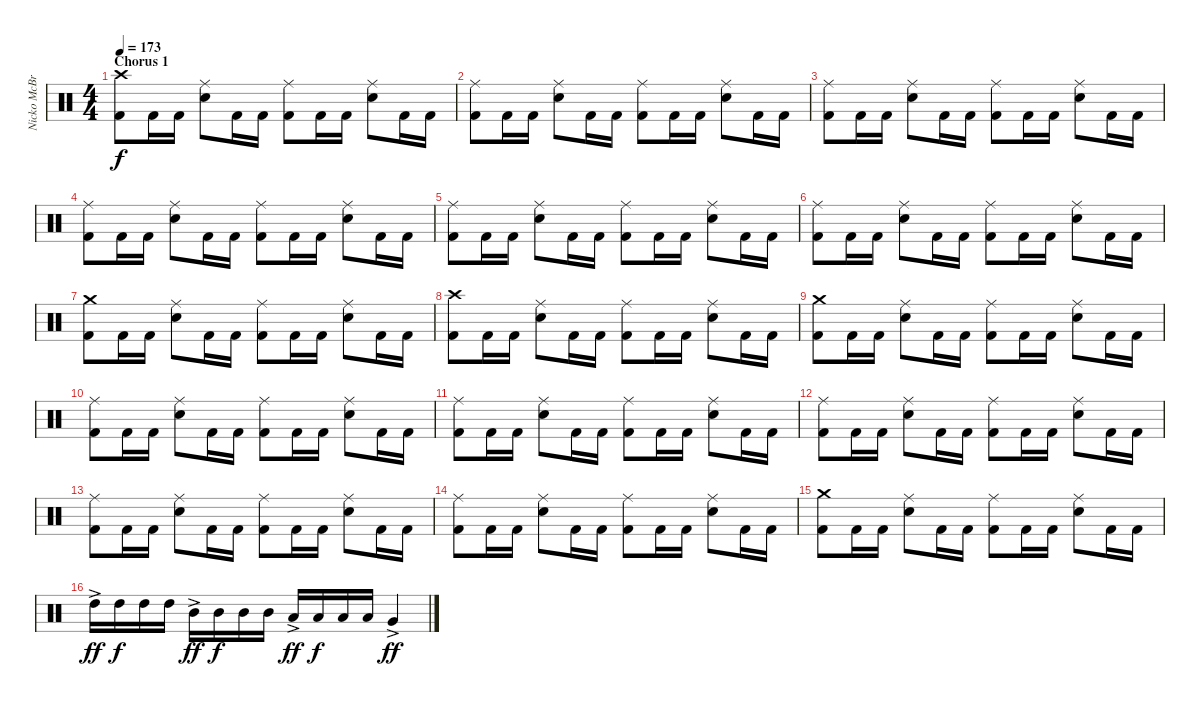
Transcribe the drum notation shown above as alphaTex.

\track ("Nicko McBrain" "Nicko McBr") {instrument percussion}
\staff {score}
\articulation defaults
\ts (4 4)
\section ("" "Chorus 1")
\tempo 173
\clef neutral
\ks c
("Crash high (hit)" "Kick (hit) 2").8{dy f} "Kick (hit) 2".16 "Kick (hit) 2".16 ("Ride (middle)" "Electric Snare (hit)").8 "Kick (hit) 2".16 "Kick (hit) 2".16 ("Ride (middle)" "Kick (hit) 2").8 "Kick (hit) 2".16 "Kick (hit) 2".16 ("Ride (middle)" "Electric Snare (hit)").8 "Kick (hit) 2".16 "Kick (hit) 2".16 |
("Ride (middle)" "Kick (hit) 2").8 "Kick (hit) 2".16 "Kick (hit) 2".16 ("Ride (middle)" "Electric Snare (hit)").8 "Kick (hit) 2".16 "Kick (hit) 2".16 ("Ride (middle)" "Kick (hit) 2").8 "Kick (hit) 2".16 "Kick (hit) 2".16 ("Ride (middle)" "Electric Snare (hit)").8 "Kick (hit) 2".16 "Kick (hit) 2".16 |
("Ride (middle)" "Kick (hit) 2").8 "Kick (hit) 2".16 "Kick (hit) 2".16 ("Ride (middle)" "Electric Snare (hit)").8 "Kick (hit) 2".16 "Kick (hit) 2".16 ("Ride (middle)" "Kick (hit) 2").8 "Kick (hit) 2".16 "Kick (hit) 2".16 ("Ride (middle)" "Electric Snare (hit)").8 "Kick (hit) 2".16 "Kick (hit) 2".16 |
("Ride (middle)" "Kick (hit) 2").8 "Kick (hit) 2".16 "Kick (hit) 2".16 ("Ride (middle)" "Electric Snare (hit)").8 "Kick (hit) 2".16 "Kick (hit) 2".16 ("Ride (middle)" "Kick (hit) 2").8 "Kick (hit) 2".16 "Kick (hit) 2".16 ("Ride (middle)" "Electric Snare (hit)").8 "Kick (hit) 2".16 "Kick (hit) 2".16 |
("Ride (middle)" "Kick (hit) 2").8 "Kick (hit) 2".16 "Kick (hit) 2".16 ("Ride (middle)" "Electric Snare (hit)").8 "Kick (hit) 2".16 "Kick (hit) 2".16 ("Ride (middle)" "Kick (hit) 2").8 "Kick (hit) 2".16 "Kick (hit) 2".16 ("Ride (middle)" "Electric Snare (hit)").8 "Kick (hit) 2".16 "Kick (hit) 2".16 |
("Ride (middle)" "Kick (hit) 2").8 "Kick (hit) 2".16 "Kick (hit) 2".16 ("Ride (middle)" "Electric Snare (hit)").8 "Kick (hit) 2".16 "Kick (hit) 2".16 ("Ride (middle)" "Kick (hit) 2").8 "Kick (hit) 2".16 "Kick (hit) 2".16 ("Ride (middle)" "Electric Snare (hit)").8 "Kick (hit) 2".16 "Kick (hit) 2".16 |
("Crash medium (hit)" "Kick (hit) 2").8 "Kick (hit) 2".16 "Kick (hit) 2".16 ("Ride (middle)" "Electric Snare (hit)").8 "Kick (hit) 2".16 "Kick (hit) 2".16 ("Ride (middle)" "Kick (hit) 2").8 "Kick (hit) 2".16 "Kick (hit) 2".16 ("Ride (middle)" "Electric Snare (hit)").8 "Kick (hit) 2".16 "Kick (hit) 2".16 |
("Crash high (hit)" "Kick (hit) 2").8 "Kick (hit) 2".16 "Kick (hit) 2".16 ("Ride (middle)" "Electric Snare (hit)").8 "Kick (hit) 2".16 "Kick (hit) 2".16 ("Ride (middle)" "Kick (hit) 2").8 "Kick (hit) 2".16 "Kick (hit) 2".16 ("Ride (middle)" "Electric Snare (hit)").8 "Kick (hit) 2".16 "Kick (hit) 2".16 |
("Crash medium (hit)" "Kick (hit) 2").8 "Kick (hit) 2".16 "Kick (hit) 2".16 ("Ride (middle)" "Electric Snare (hit)").8 "Kick (hit) 2".16 "Kick (hit) 2".16 ("Ride (middle)" "Kick (hit) 2").8 "Kick (hit) 2".16 "Kick (hit) 2".16 ("Ride (middle)" "Electric Snare (hit)").8 "Kick (hit) 2".16 "Kick (hit) 2".16 |
("Ride (middle)" "Kick (hit) 2").8 "Kick (hit) 2".16 "Kick (hit) 2".16 ("Ride (middle)" "Electric Snare (hit)").8 "Kick (hit) 2".16 "Kick (hit) 2".16 ("Ride (middle)" "Kick (hit) 2").8 "Kick (hit) 2".16 "Kick (hit) 2".16 ("Ride (middle)" "Electric Snare (hit)").8 "Kick (hit) 2".16 "Kick (hit) 2".16 |
("Ride (middle)" "Kick (hit) 2").8 "Kick (hit) 2".16 "Kick (hit) 2".16 ("Ride (middle)" "Electric Snare (hit)").8 "Kick (hit) 2".16 "Kick (hit) 2".16 ("Ride (middle)" "Kick (hit) 2").8 "Kick (hit) 2".16 "Kick (hit) 2".16 ("Ride (middle)" "Electric Snare (hit)").8 "Kick (hit) 2".16 "Kick (hit) 2".16 |
("Ride (middle)" "Kick (hit) 2").8 "Kick (hit) 2".16 "Kick (hit) 2".16 ("Ride (middle)" "Electric Snare (hit)").8 "Kick (hit) 2".16 "Kick (hit) 2".16 ("Ride (middle)" "Kick (hit) 2").8 "Kick (hit) 2".16 "Kick (hit) 2".16 ("Ride (middle)" "Electric Snare (hit)").8 "Kick (hit) 2".16 "Kick (hit) 2".16 |
("Ride (middle)" "Kick (hit) 2").8 "Kick (hit) 2".16 "Kick (hit) 2".16 ("Ride (middle)" "Electric Snare (hit)").8 "Kick (hit) 2".16 "Kick (hit) 2".16 ("Ride (middle)" "Kick (hit) 2").8 "Kick (hit) 2".16 "Kick (hit) 2".16 ("Ride (middle)" "Electric Snare (hit)").8 "Kick (hit) 2".16 "Kick (hit) 2".16 |
("Ride (middle)" "Kick (hit) 2").8 "Kick (hit) 2".16 "Kick (hit) 2".16 ("Ride (middle)" "Electric Snare (hit)").8 "Kick (hit) 2".16 "Kick (hit) 2".16 ("Ride (middle)" "Kick (hit) 2").8 "Kick (hit) 2".16 "Kick (hit) 2".16 ("Ride (middle)" "Electric Snare (hit)").8 "Kick (hit) 2".16 "Kick (hit) 2".16 |
("Crash medium (hit)" "Kick (hit) 2").8 "Kick (hit) 2".16 "Kick (hit) 2".16 ("Ride (middle)" "Electric Snare (hit)").8 "Kick (hit) 2".16 "Kick (hit) 2".16 ("Ride (middle)" "Kick (hit) 2").8 "Kick (hit) 2".16 "Kick (hit) 2".16 ("Ride (middle)" "Electric Snare (hit)").8 "Kick (hit) 2".16 "Kick (hit) 2".16 |
"High Tom (hit)"{ac}.16{dy ff} "High Tom (hit)".16{dy f} "High Tom (hit)".16 "High Tom (hit)".16 "Mid Tom (hit)"{ac}.16{dy ff} "Mid Tom (hit)".16{dy f} "Mid Tom (hit)".16 "Mid Tom (hit)".16 "Low Tom (hit)"{ac}.16{dy ff} "Low Tom (hit)".16{dy f} "Low Tom (hit)".16 "Low Tom (hit)".16 "Very Low Tom (hit)"{ac}.4{dy ff}
